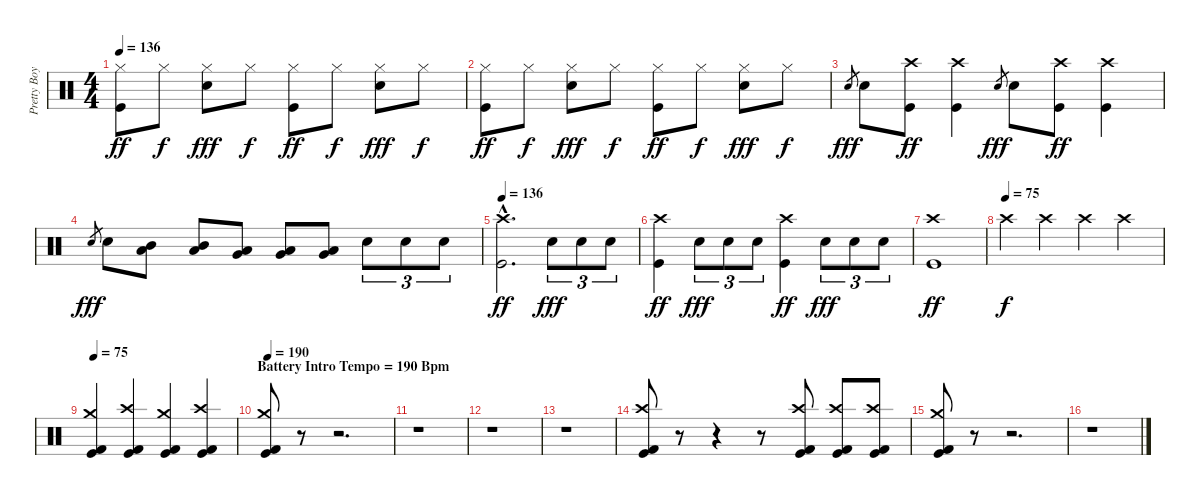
\track ("Pretty Boy Geoff (Lars Drums)" "Pretty Boy") {instrument percussion}
\staff {score}
\articulation defaults
\ts (4 4)
\tempo 136
\clef neutral
\ks c
("Hi-Hat (closed)" "Kick (hit)").8{dy ff} "Hi-Hat (closed)".8{dy f} ("Hi-Hat (closed)" "Electric Snare (hit)").8{dy fff} "Hi-Hat (closed)".8{dy f} ("Hi-Hat (closed)" "Kick (hit)").8{dy ff} "Hi-Hat (closed)".8{dy f} ("Hi-Hat (closed)" "Electric Snare (hit)").8{dy fff} "Hi-Hat (closed)".8{dy f} |
("Hi-Hat (closed)" "Kick (hit)").8{dy ff} "Hi-Hat (closed)".8{dy f} ("Hi-Hat (closed)" "Electric Snare (hit)").8{dy fff} "Hi-Hat (closed)".8{dy f} ("Hi-Hat (closed)" "Kick (hit)").8{dy ff} "Hi-Hat (closed)".8{dy f} ("Hi-Hat (closed)" "Electric Snare (hit)").8{dy fff} "Hi-Hat (closed)".8{dy f} |
"Electric Snare (hit)".8{gr dy fff} "Electric Snare (hit)".8 ("Crash high (hit)" "Kick (hit)").8{dy ff} ("Crash high (hit)" "Kick (hit)").4 "Electric Snare (hit)".8{gr dy fff} "Electric Snare (hit)".8 ("Crash high (hit)" "Kick (hit)").8{dy ff} ("Crash high (hit)" "Kick (hit)").4 |
"Electric Snare (hit)".8{gr dy fff} "Electric Snare (hit)".8 ("Mid Tom (hit)" "Low Tom (hit)").8 ("Mid Tom (hit)" "Low Tom (hit)").8 ("Low Tom (hit)" "Very Low Tom (hit)").8 ("Low Tom (hit)" "Very Low Tom (hit)").8 ("Very Low Tom (hit)" "Low Floor Tom (hit)").8 "Electric Snare (hit)".8{tu (3 2)} "Electric Snare (hit)".8{tu (3 2)} "Electric Snare (hit)".8{tu (3 2)} |
\tempo 136
("Crash high (hit)"{hac} "Kick (hit)"{hac}).2{d dy ff} "Electric Snare (hit)".8{tu (3 2) dy fff} "Electric Snare (hit)".8{tu (3 2)} "Electric Snare (hit)".8{tu (3 2)} |
("Crash high (hit)" "Kick (hit)").4{dy ff} "Electric Snare (hit)".8{tu (3 2) dy fff} "Electric Snare (hit)".8{tu (3 2)} "Electric Snare (hit)".8{tu (3 2)} ("Crash high (hit)" "Kick (hit)").4{dy ff} "Electric Snare (hit)".8{tu (3 2) dy fff} "Electric Snare (hit)".8{tu (3 2)} "Electric Snare (hit)".8{tu (3 2)} |
("Crash high (hit)" "Kick (hit)").1{dy ff} |
\tempo (75)
"Crash high (hit)".4{dy f} "Crash high (hit)".4 "Crash high (hit)".4 "Crash high (hit)".4 |
\tempo 75
("Crash medium (hit)" "Kick (hit) 2" "Kick (hit)").4 ("Crash high (hit)" "Kick (hit) 2" "Kick (hit)").4 ("Crash medium (hit)" "Kick (hit) 2" "Kick (hit)").4 ("Crash high (hit)" "Kick (hit) 2" "Kick (hit)").4 |
\section ("" "Battery Intro Tempo = 190 Bpm")
\tempo 190
("Crash medium (hit)" "Kick (hit) 2" "Kick (hit)").8 r.8 r.2{d} |
r.1 |
r.1 |
r.1 |
("Crash high (hit)" "Kick (hit) 2" "Kick (hit)").8 r.8 r.4 r.8 ("Crash high (hit)" "Kick (hit) 2" "Kick (hit)").8 ("Crash high (hit)" "Kick (hit) 2" "Kick (hit)").8 ("Crash high (hit)" "Kick (hit) 2" "Kick (hit)").8 |
("Crash medium (hit)" "Kick (hit) 2" "Kick (hit)").8 r.8 r.2{d} |
r.1
